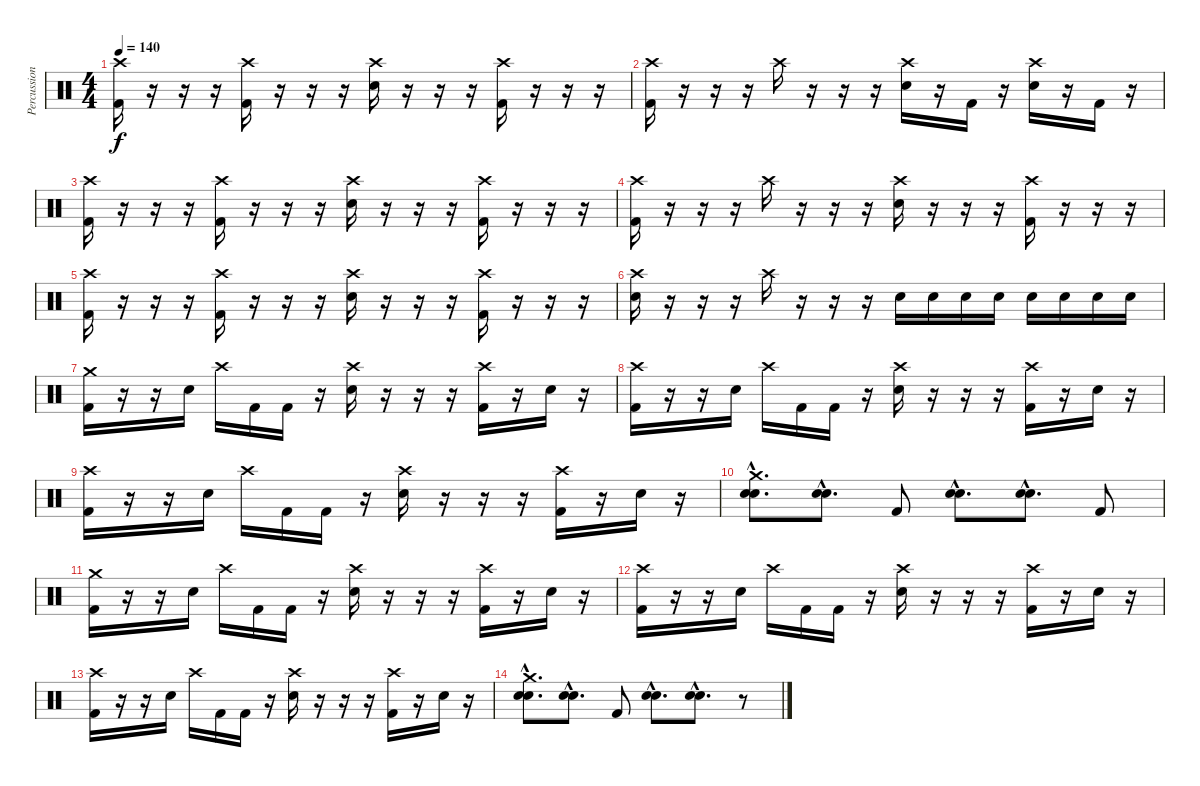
\track ("Percussion" "Percussion") {instrument percussion}
\staff {score}
\articulation defaults
\ts (4 4)
\tempo 140
\clef neutral
\ks c
("Crash high (hit)" "Kick (hit) 2").16{dy f} r.16 r.16 r.16 ("Crash high (hit)" "Kick (hit) 2").16 r.16 r.16 r.16 ("Crash high (hit)" "Electric Snare (hit)").16 r.16 r.16 r.16 ("Crash high (hit)" "Kick (hit) 2").16 r.16 r.16 r.16 |
("Crash high (hit)" "Kick (hit) 2").16 r.16 r.16 r.16 "Crash high (hit)".16 r.16 r.16 r.16 ("Crash high (hit)" "Electric Snare (hit)").16 r.16 "Kick (hit) 2".16 r.16 ("Crash high (hit)" "Electric Snare (hit)").16 r.16 "Kick (hit) 2".16 r.16 |
("Crash high (hit)" "Kick (hit) 2").16 r.16 r.16 r.16 ("Crash high (hit)" "Kick (hit) 2").16 r.16 r.16 r.16 ("Crash high (hit)" "Electric Snare (hit)").16 r.16 r.16 r.16 ("Crash high (hit)" "Kick (hit) 2").16 r.16 r.16 r.16 |
("Crash high (hit)" "Kick (hit) 2").16 r.16 r.16 r.16 "Crash high (hit)".16 r.16 r.16 r.16 ("Crash high (hit)" "Electric Snare (hit)").16 r.16 r.16 r.16 ("Crash high (hit)" "Kick (hit) 2").16 r.16 r.16 r.16 |
("Crash high (hit)" "Kick (hit) 2").16 r.16 r.16 r.16 ("Crash high (hit)" "Kick (hit) 2").16 r.16 r.16 r.16 ("Crash high (hit)" "Electric Snare (hit)").16 r.16 r.16 r.16 ("Crash high (hit)" "Kick (hit) 2").16 r.16 r.16 r.16 |
("Crash high (hit)" "Electric Snare (hit)").16 r.16 r.16 r.16 "Crash high (hit)".16 r.16 r.16 r.16 "Electric Snare (hit)".16 "Electric Snare (hit)".16 "Electric Snare (hit)".16 "Electric Snare (hit)".16 "Electric Snare (hit)".16 "Electric Snare (hit)".16 "Electric Snare (hit)".16 "Electric Snare (hit)".16 |
("Crash medium (hit)" "Kick (hit) 2").16 r.16 r.16 "Electric Snare (hit)".16 "Crash high (hit)".16 "Kick (hit) 2".16 "Kick (hit) 2".16 r.16 ("Crash high (hit)" "Electric Snare (hit)").16 r.16 r.16 r.16 ("Crash high (hit)" "Kick (hit) 2").16 r.16 "Electric Snare (hit)".16 r.16 |
("Crash high (hit)" "Kick (hit) 2").16 r.16 r.16 "Electric Snare (hit)".16 "Crash high (hit)".16 "Kick (hit) 2".16 "Kick (hit) 2".16 r.16 ("Crash high (hit)" "Electric Snare (hit)").16 r.16 r.16 r.16 ("Crash high (hit)" "Kick (hit) 2").16 r.16 "Electric Snare (hit)".16 r.16 |
("Crash high (hit)" "Kick (hit) 2").16 r.16 r.16 "Electric Snare (hit)".16 "Crash high (hit)".16 "Kick (hit) 2".16 "Kick (hit) 2".16 r.16 ("Crash high (hit)" "Electric Snare (hit)").16 r.16 r.16 r.16 ("Crash high (hit)" "Kick (hit) 2").16 r.16 "Electric Snare (hit)".16 r.16 |
("Crash medium (hit)"{hac} "Electric Snare (hit)"{hac} "Electric Snare (hit)"{hac}).8{d} ("Electric Snare (hit)"{hac} "Electric Snare (hit)"{hac}).8{d} "Kick (hit) 2".8 ("Electric Snare (hit)"{hac} "Electric Snare (hit)"{hac}).8{d} ("Electric Snare (hit)"{hac} "Electric Snare (hit)"{hac}).8{d} "Kick (hit) 2".8 |
("Crash medium (hit)" "Kick (hit) 2").16 r.16 r.16 "Electric Snare (hit)".16 "Crash high (hit)".16 "Kick (hit) 2".16 "Kick (hit) 2".16 r.16 ("Crash high (hit)" "Electric Snare (hit)").16 r.16 r.16 r.16 ("Crash high (hit)" "Kick (hit) 2").16 r.16 "Electric Snare (hit)".16 r.16 |
("Crash high (hit)" "Kick (hit) 2").16 r.16 r.16 "Electric Snare (hit)".16 "Crash high (hit)".16 "Kick (hit) 2".16 "Kick (hit) 2".16 r.16 ("Crash high (hit)" "Electric Snare (hit)").16 r.16 r.16 r.16 ("Crash high (hit)" "Kick (hit) 2").16 r.16 "Electric Snare (hit)".16 r.16 |
("Crash high (hit)" "Kick (hit) 2").16 r.16 r.16 "Electric Snare (hit)".16 "Crash high (hit)".16 "Kick (hit) 2".16 "Kick (hit) 2".16 r.16 ("Crash high (hit)" "Electric Snare (hit)").16 r.16 r.16 r.16 ("Crash high (hit)" "Kick (hit) 2").16 r.16 "Electric Snare (hit)".16 r.16 |
("Crash medium (hit)"{hac} "Electric Snare (hit)"{hac} "Electric Snare (hit)"{hac}).8{d} ("Electric Snare (hit)"{hac} "Electric Snare (hit)"{hac}).8{d} "Kick (hit) 2".8 ("Electric Snare (hit)"{hac} "Electric Snare (hit)"{hac}).8{d} ("Electric Snare (hit)"{hac} "Electric Snare (hit)"{hac}).8{d} r.8
